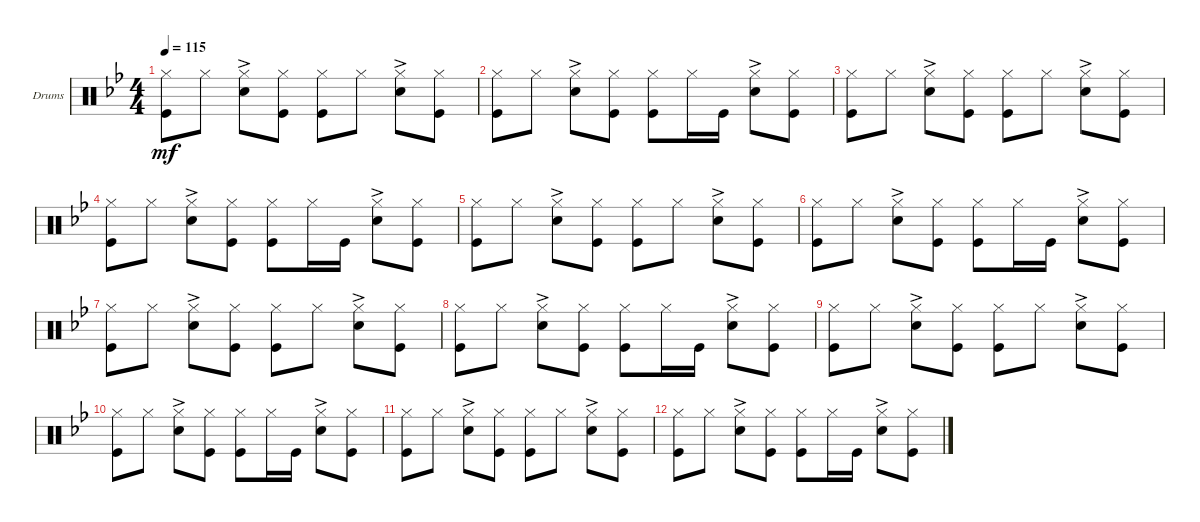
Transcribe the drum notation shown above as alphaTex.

\defaultSystemsLayout 4
\bracketExtendMode groupsimilarinstruments
\firstSystemTrackNameOrientation horizontal
\otherSystemsTrackNameOrientation horizontal
\track ("Batera" "Drums") {instrument percussion}
\staff {score}
\articulation defaults
\ts (4 4)
\tempo 115
\clef neutral
\ks gminor
("Kick (hit)" "Hi-Hat (closed)").8{dy mf} "Hi-Hat (closed)".8 ("Snare (hit) 2"{ac} "Hi-Hat (closed)").8 ("Kick (hit)" "Hi-Hat (closed)").8 ("Hi-Hat (closed)" "Kick (hit)").8 "Hi-Hat (closed)".8 ("Hi-Hat (closed)" "Snare (hit) 2"{ac}).8 ("Hi-Hat (closed)" "Kick (hit)").8 |
("Hi-Hat (closed)" "Kick (hit)").8 "Hi-Hat (closed)".8 ("Hi-Hat (closed)" "Snare (hit) 2"{ac}).8 ("Hi-Hat (closed)" "Kick (hit)").8 ("Hi-Hat (closed)" "Kick (hit)").8 "Hi-Hat (closed)".16 "Kick (hit)".16 ("Hi-Hat (closed)" "Snare (hit) 2"{ac}).8 ("Hi-Hat (closed)" "Kick (hit)").8 |
("Kick (hit)" "Hi-Hat (closed)").8 "Hi-Hat (closed)".8 ("Snare (hit) 2"{ac} "Hi-Hat (closed)").8 ("Kick (hit)" "Hi-Hat (closed)").8 ("Hi-Hat (closed)" "Kick (hit)").8 "Hi-Hat (closed)".8 ("Hi-Hat (closed)" "Snare (hit) 2"{ac}).8 ("Hi-Hat (closed)" "Kick (hit)").8 |
("Hi-Hat (closed)" "Kick (hit)").8 "Hi-Hat (closed)".8 ("Hi-Hat (closed)" "Snare (hit) 2"{ac}).8 ("Hi-Hat (closed)" "Kick (hit)").8 ("Hi-Hat (closed)" "Kick (hit)").8 "Hi-Hat (closed)".16 "Kick (hit)".16 ("Hi-Hat (closed)" "Snare (hit) 2"{ac}).8 ("Hi-Hat (closed)" "Kick (hit)").8 |
("Kick (hit)" "Hi-Hat (closed)").8 "Hi-Hat (closed)".8 ("Snare (hit) 2"{ac} "Hi-Hat (closed)").8 ("Kick (hit)" "Hi-Hat (closed)").8 ("Hi-Hat (closed)" "Kick (hit)").8 "Hi-Hat (closed)".8 ("Hi-Hat (closed)" "Snare (hit) 2"{ac}).8 ("Hi-Hat (closed)" "Kick (hit)").8 |
("Hi-Hat (closed)" "Kick (hit)").8 "Hi-Hat (closed)".8 ("Hi-Hat (closed)" "Snare (hit) 2"{ac}).8 ("Hi-Hat (closed)" "Kick (hit)").8 ("Hi-Hat (closed)" "Kick (hit)").8 "Hi-Hat (closed)".16 "Kick (hit)".16 ("Hi-Hat (closed)" "Snare (hit) 2"{ac}).8 ("Hi-Hat (closed)" "Kick (hit)").8 |
("Kick (hit)" "Hi-Hat (closed)").8 "Hi-Hat (closed)".8 ("Snare (hit) 2"{ac} "Hi-Hat (closed)").8 ("Kick (hit)" "Hi-Hat (closed)").8 ("Hi-Hat (closed)" "Kick (hit)").8 "Hi-Hat (closed)".8 ("Hi-Hat (closed)" "Snare (hit) 2"{ac}).8 ("Hi-Hat (closed)" "Kick (hit)").8 |
("Hi-Hat (closed)" "Kick (hit)").8 "Hi-Hat (closed)".8 ("Hi-Hat (closed)" "Snare (hit) 2"{ac}).8 ("Hi-Hat (closed)" "Kick (hit)").8 ("Hi-Hat (closed)" "Kick (hit)").8 "Hi-Hat (closed)".16 "Kick (hit)".16 ("Hi-Hat (closed)" "Snare (hit) 2"{ac}).8 ("Hi-Hat (closed)" "Kick (hit)").8 |
("Kick (hit)" "Hi-Hat (closed)").8 "Hi-Hat (closed)".8 ("Snare (hit) 2"{ac} "Hi-Hat (closed)").8 ("Kick (hit)" "Hi-Hat (closed)").8 ("Hi-Hat (closed)" "Kick (hit)").8 "Hi-Hat (closed)".8 ("Hi-Hat (closed)" "Snare (hit) 2"{ac}).8 ("Hi-Hat (closed)" "Kick (hit)").8 |
("Hi-Hat (closed)" "Kick (hit)").8 "Hi-Hat (closed)".8 ("Hi-Hat (closed)" "Snare (hit) 2"{ac}).8 ("Hi-Hat (closed)" "Kick (hit)").8 ("Hi-Hat (closed)" "Kick (hit)").8 "Hi-Hat (closed)".16 "Kick (hit)".16 ("Hi-Hat (closed)" "Snare (hit) 2"{ac}).8 ("Hi-Hat (closed)" "Kick (hit)").8 |
("Kick (hit)" "Hi-Hat (closed)").8 "Hi-Hat (closed)".8 ("Snare (hit) 2"{ac} "Hi-Hat (closed)").8 ("Kick (hit)" "Hi-Hat (closed)").8 ("Hi-Hat (closed)" "Kick (hit)").8 "Hi-Hat (closed)".8 ("Hi-Hat (closed)" "Snare (hit) 2"{ac}).8 ("Hi-Hat (closed)" "Kick (hit)").8 |
("Hi-Hat (closed)" "Kick (hit)").8 "Hi-Hat (closed)".8 ("Hi-Hat (closed)" "Snare (hit) 2"{ac}).8 ("Hi-Hat (closed)" "Kick (hit)").8 ("Hi-Hat (closed)" "Kick (hit)").8 "Hi-Hat (closed)".16 "Kick (hit)".16 ("Hi-Hat (closed)" "Snare (hit) 2"{ac}).8 ("Hi-Hat (closed)" "Kick (hit)").8
